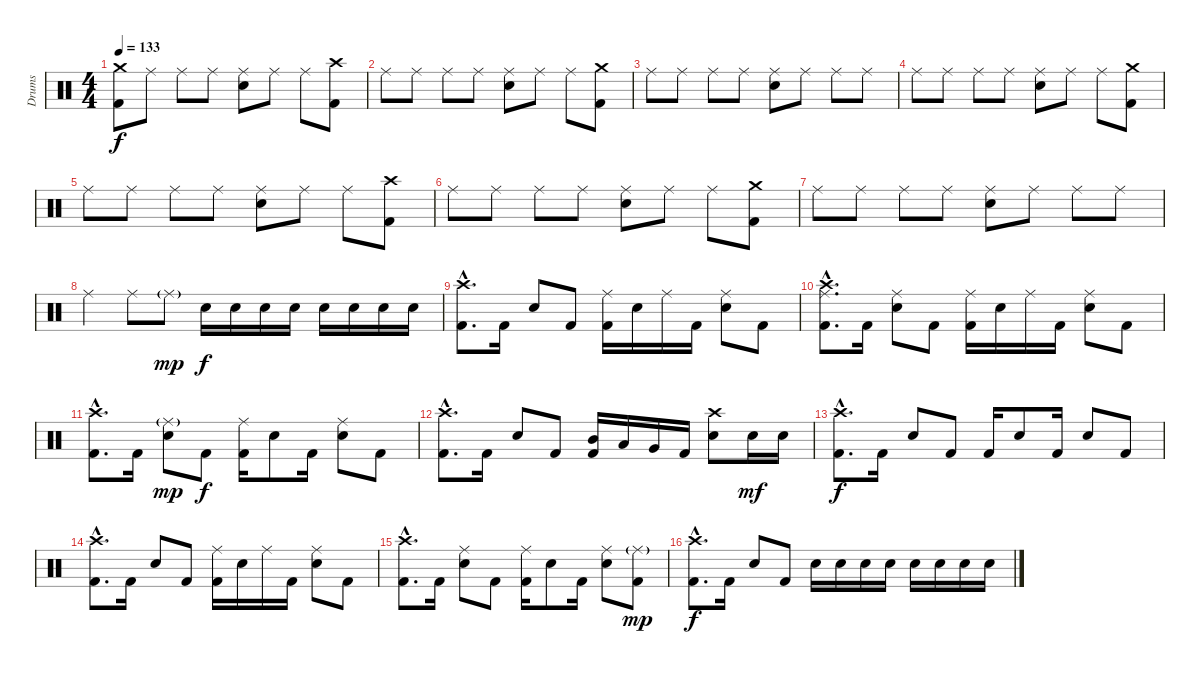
\track ("Drums" "Drums") {instrument percussion}
\staff {score}
\articulation defaults
\ts (4 4)
\tempo 133
\clef neutral
\ks c
("Crash medium (hit)" "Kick (hit) 2").8{dy f} "Ride (middle)".8 "Ride (middle)".8 "Ride (middle)".8 ("Ride (middle)" "Snare (hit) 2").8 "Ride (middle)".8 "Ride (middle)".8 ("Crash high (hit)" "Kick (hit) 2").8 |
"Ride (middle)".8 "Ride (middle)".8 "Ride (middle)".8 "Ride (middle)".8 ("Ride (middle)" "Snare (hit) 2").8 "Ride (middle)".8 "Ride (middle)".8 ("Crash medium (hit)" "Kick (hit) 2").8 |
"Ride (middle)".8 "Ride (middle)".8 "Ride (middle)".8 "Ride (middle)".8 ("Ride (middle)" "Snare (hit) 2").8 "Ride (middle)".8 "Ride (middle)".8 "Ride (middle)".8 |
"Ride (middle)".8 "Ride (middle)".8 "Ride (middle)".8 "Ride (middle)".8 ("Ride (middle)" "Snare (hit) 2").8 "Ride (middle)".8 "Ride (middle)".8 ("Crash medium (hit)" "Kick (hit) 2").8 |
"Ride (middle)".8 "Ride (middle)".8 "Ride (middle)".8 "Ride (middle)".8 ("Ride (middle)" "Snare (hit) 2").8 "Ride (middle)".8 "Ride (middle)".8 ("Crash high (hit)" "Kick (hit) 2").8 |
"Ride (middle)".8 "Ride (middle)".8 "Ride (middle)".8 "Ride (middle)".8 ("Ride (middle)" "Snare (hit) 2").8 "Ride (middle)".8 "Ride (middle)".8 ("Crash medium (hit)" "Kick (hit) 2").8 |
"Ride (middle)".8 "Ride (middle)".8 "Ride (middle)".8 "Ride (middle)".8 ("Ride (middle)" "Snare (hit) 2").8 "Ride (middle)".8 "Ride (middle)".8 "Ride (middle)".8 |
"Ride (middle)".4 "Ride (middle)".8 "Ride (middle)"{g}.8{dy mp} "Snare (hit) 2".16{dy f} "Snare (hit) 2".16 "Snare (hit) 2".16 "Snare (hit) 2".16 "Snare (hit) 2".16 "Snare (hit) 2".16 "Snare (hit) 2".16 "Snare (hit) 2".16 |
("Crash high (hit)"{hac} "Kick (hit) 2"{hac}).8{d} "Kick (hit) 2".16 "Snare (hit) 2".8 "Kick (hit) 2".8 ("Ride (middle)" "Kick (hit) 2").16 "Snare (hit) 2".16 "Ride (middle)".16 "Kick (hit) 2".16 ("Ride (middle)" "Snare (hit) 2").8 "Kick (hit) 2".8 |
("Crash high (hit)"{hac} "Ride (middle)"{hac} "Kick (hit) 2"{hac}).8{d} "Kick (hit) 2".16 ("Ride (middle)" "Snare (hit) 2").8 "Kick (hit) 2".8 ("Ride (middle)" "Kick (hit) 2").16 "Snare (hit) 2".16 "Ride (middle)".16 "Kick (hit) 2".16 ("Ride (middle)" "Snare (hit) 2").8 "Kick (hit) 2".8 |
("Crash high (hit)"{hac} "Kick (hit) 2"{hac}).8{d} "Kick (hit) 2".16 ("Ride (middle)"{g} "Snare (hit) 2").8{dy mp} "Kick (hit) 2".8{dy f} ("Ride (middle)" "Kick (hit) 2").16 "Snare (hit) 2".8 "Kick (hit) 2".16 ("Ride (middle)" "Snare (hit) 2").8 "Kick (hit) 2".8 |
("Crash high (hit)"{hac} "Kick (hit) 2"{hac}).8{d} "Kick (hit) 2".16 "Snare (hit) 2".8 "Kick (hit) 2".8 ("Mid Tom (hit)" "Kick (hit) 2").16 "Low Tom (hit)".16 "Very Low Tom (hit)".16 "Kick (hit) 2".16 ("Crash high (hit)" "Snare (hit) 2").8 "Snare (hit) 2".16{dy mf} "Snare (hit) 2".16 |
("Crash high (hit)"{hac} "Kick (hit) 2"{hac}).8{d dy f} "Kick (hit) 2".16 "Snare (hit) 2".8 "Kick (hit) 2".8 "Kick (hit) 2".16 "Snare (hit) 2".8 "Kick (hit) 2".16 "Snare (hit) 2".8 "Kick (hit) 2".8 |
("Crash high (hit)"{hac} "Kick (hit) 2"{hac}).8{d} "Kick (hit) 2".16 "Snare (hit) 2".8 "Kick (hit) 2".8 ("Ride (middle)" "Kick (hit) 2").16 "Snare (hit) 2".16 "Ride (middle)".16 "Kick (hit) 2".16 ("Ride (middle)" "Snare (hit) 2").8 "Kick (hit) 2".8 |
("Crash high (hit)"{hac} "Kick (hit) 2"{hac}).8{d} "Kick (hit) 2".16 ("Ride (middle)" "Snare (hit) 2").8 "Kick (hit) 2".8 ("Ride (middle)" "Kick (hit) 2").16 "Snare (hit) 2".8 "Kick (hit) 2".16 ("Ride (middle)" "Snare (hit) 2").8 ("Ride (middle)"{g} "Kick (hit) 2").8{dy mp} |
("Crash high (hit)"{hac} "Kick (hit) 2"{hac}).8{d dy f} "Kick (hit) 2".16 "Snare (hit) 2".8 "Kick (hit) 2".8 "Snare (hit) 2".16 "Snare (hit) 2".16 "Snare (hit) 2".16 "Snare (hit) 2".16 "Snare (hit) 2".16 "Snare (hit) 2".16 "Snare (hit) 2".16 "Snare (hit) 2".16
